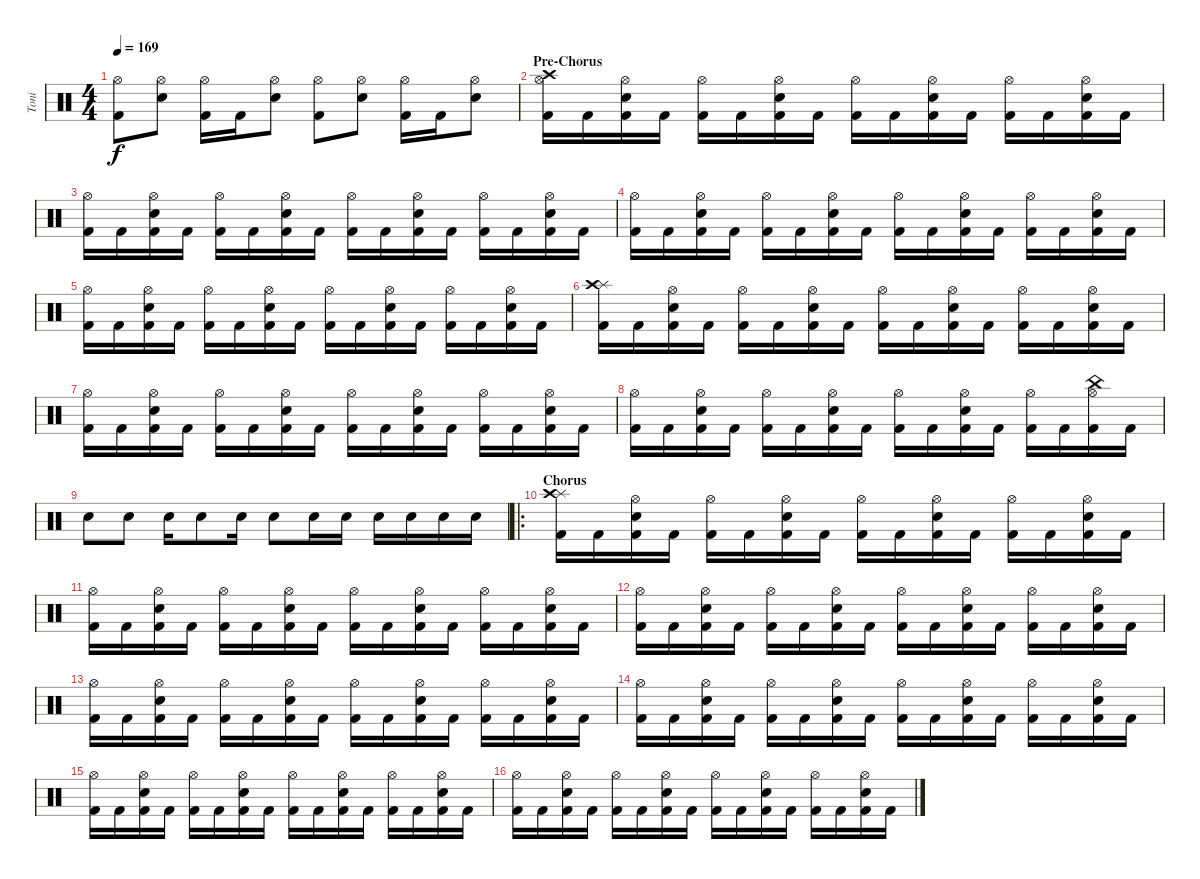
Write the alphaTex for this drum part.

\track ("Toni" "Toni") {instrument percussion}
\staff {score}
\articulation defaults
\ts (4 4)
\tempo 169
\clef neutral
\ks c
("Hi-Hat (open)" "Kick (hit) 2").8{dy f} ("Hi-Hat (open)" "Electric Snare (hit)").8 ("Hi-Hat (open)" "Kick (hit) 2").16 "Kick (hit) 2".16 ("Hi-Hat (open)" "Electric Snare (hit)").8 ("Hi-Hat (open)" "Kick (hit) 2").8 ("Hi-Hat (open)" "Electric Snare (hit)").8 ("Hi-Hat (open)" "Kick (hit) 2").16 "Kick (hit) 2".16 ("Hi-Hat (open)" "Electric Snare (hit)").8 |
\section ("" "Pre-Chorus")
("Crash high (hit)" "Hi-Hat (open)" "Kick (hit) 2").16 "Kick (hit) 2".16 ("Hi-Hat (open)" "Electric Snare (hit)" "Kick (hit) 2").16 "Kick (hit) 2".16 ("Hi-Hat (open)" "Kick (hit) 2").16 "Kick (hit) 2".16 ("Hi-Hat (open)" "Electric Snare (hit)" "Kick (hit) 2").16 "Kick (hit) 2".16 ("Hi-Hat (open)" "Kick (hit) 2").16 "Kick (hit) 2".16 ("Hi-Hat (open)" "Electric Snare (hit)" "Kick (hit) 2").16 "Kick (hit) 2".16 ("Hi-Hat (open)" "Kick (hit) 2").16 "Kick (hit) 2".16 ("Hi-Hat (open)" "Electric Snare (hit)" "Kick (hit) 2").16 "Kick (hit) 2".16 |
("Hi-Hat (open)" "Kick (hit) 2").16 "Kick (hit) 2".16 ("Hi-Hat (open)" "Electric Snare (hit)" "Kick (hit) 2").16 "Kick (hit) 2".16 ("Hi-Hat (open)" "Kick (hit) 2").16 "Kick (hit) 2".16 ("Hi-Hat (open)" "Electric Snare (hit)" "Kick (hit) 2").16 "Kick (hit) 2".16 ("Hi-Hat (open)" "Kick (hit) 2").16 "Kick (hit) 2".16 ("Hi-Hat (open)" "Electric Snare (hit)" "Kick (hit) 2").16 "Kick (hit) 2".16 ("Hi-Hat (open)" "Kick (hit) 2").16 "Kick (hit) 2".16 ("Hi-Hat (open)" "Electric Snare (hit)" "Kick (hit) 2").16 "Kick (hit) 2".16 |
("Hi-Hat (open)" "Kick (hit) 2").16 "Kick (hit) 2".16 ("Hi-Hat (open)" "Electric Snare (hit)" "Kick (hit) 2").16 "Kick (hit) 2".16 ("Hi-Hat (open)" "Kick (hit) 2").16 "Kick (hit) 2".16 ("Hi-Hat (open)" "Electric Snare (hit)" "Kick (hit) 2").16 "Kick (hit) 2".16 ("Hi-Hat (open)" "Kick (hit) 2").16 "Kick (hit) 2".16 ("Hi-Hat (open)" "Electric Snare (hit)" "Kick (hit) 2").16 "Kick (hit) 2".16 ("Hi-Hat (open)" "Kick (hit) 2").16 "Kick (hit) 2".16 ("Hi-Hat (open)" "Electric Snare (hit)" "Kick (hit) 2").16 "Kick (hit) 2".16 |
("Hi-Hat (open)" "Kick (hit) 2").16 "Kick (hit) 2".16 ("Hi-Hat (open)" "Electric Snare (hit)" "Kick (hit) 2").16 "Kick (hit) 2".16 ("Hi-Hat (open)" "Kick (hit) 2").16 "Kick (hit) 2".16 ("Hi-Hat (open)" "Electric Snare (hit)" "Kick (hit) 2").16 "Kick (hit) 2".16 ("Hi-Hat (open)" "Kick (hit) 2").16 "Kick (hit) 2".16 ("Hi-Hat (open)" "Electric Snare (hit)" "Kick (hit) 2").16 "Kick (hit) 2".16 ("Hi-Hat (open)" "Kick (hit) 2").16 "Kick (hit) 2".16 ("Hi-Hat (open)" "Electric Snare (hit)" "Kick (hit) 2").16 "Kick (hit) 2".16 |
("Splash (hit)" "Crash high (hit)" "Kick (hit) 2").16 "Kick (hit) 2".16 ("Hi-Hat (open)" "Electric Snare (hit)" "Kick (hit) 2").16 "Kick (hit) 2".16 ("Hi-Hat (open)" "Kick (hit) 2").16 "Kick (hit) 2".16 ("Hi-Hat (open)" "Electric Snare (hit)" "Kick (hit) 2").16 "Kick (hit) 2".16 ("Hi-Hat (open)" "Kick (hit) 2").16 "Kick (hit) 2".16 ("Hi-Hat (open)" "Electric Snare (hit)" "Kick (hit) 2").16 "Kick (hit) 2".16 ("Hi-Hat (open)" "Kick (hit) 2").16 "Kick (hit) 2".16 ("Hi-Hat (open)" "Electric Snare (hit)" "Kick (hit) 2").16 "Kick (hit) 2".16 |
("Hi-Hat (open)" "Kick (hit) 2").16 "Kick (hit) 2".16 ("Hi-Hat (open)" "Electric Snare (hit)" "Kick (hit) 2").16 "Kick (hit) 2".16 ("Hi-Hat (open)" "Kick (hit) 2").16 "Kick (hit) 2".16 ("Hi-Hat (open)" "Electric Snare (hit)" "Kick (hit) 2").16 "Kick (hit) 2".16 ("Hi-Hat (open)" "Kick (hit) 2").16 "Kick (hit) 2".16 ("Hi-Hat (open)" "Electric Snare (hit)" "Kick (hit) 2").16 "Kick (hit) 2".16 ("Hi-Hat (open)" "Kick (hit) 2").16 "Kick (hit) 2".16 ("Hi-Hat (open)" "Electric Snare (hit)" "Kick (hit) 2").16 "Kick (hit) 2".16 |
("Hi-Hat (open)" "Kick (hit) 2").16 "Kick (hit) 2".16 ("Hi-Hat (open)" "Electric Snare (hit)" "Kick (hit) 2").16 "Kick (hit) 2".16 ("Hi-Hat (open)" "Kick (hit) 2").16 "Kick (hit) 2".16 ("Hi-Hat (open)" "Electric Snare (hit)" "Kick (hit) 2").16 "Kick (hit) 2".16 ("Hi-Hat (open)" "Kick (hit) 2").16 "Kick (hit) 2".16 ("Hi-Hat (open)" "Electric Snare (hit)" "Kick (hit) 2").16 "Kick (hit) 2".16 ("Hi-Hat (open)" "Kick (hit) 2").16 "Kick (hit) 2".16 ("Hi-Hat (open)" "China (hit)" "Kick (hit) 2").16 "Kick (hit) 2".16 |
"Electric Snare (hit)".8 "Electric Snare (hit)".8 "Electric Snare (hit)".16 "Electric Snare (hit)".8 "Electric Snare (hit)".16 "Electric Snare (hit)".8 "Electric Snare (hit)".16 "Electric Snare (hit)".16 "Electric Snare (hit)".16 "Electric Snare (hit)".16 "Electric Snare (hit)".16 "Electric Snare (hit)".16 |
\ro
\section ("" "Chorus")
("Splash (hit)" "Crash high (hit)" "Kick (hit) 2").16 "Kick (hit) 2".16 ("Hi-Hat (open)" "Electric Snare (hit)" "Kick (hit) 2").16 "Kick (hit) 2".16 ("Hi-Hat (open)" "Kick (hit) 2").16 "Kick (hit) 2".16 ("Hi-Hat (open)" "Electric Snare (hit)" "Kick (hit) 2").16 "Kick (hit) 2".16 ("Hi-Hat (open)" "Kick (hit) 2").16 "Kick (hit) 2".16 ("Hi-Hat (open)" "Electric Snare (hit)" "Kick (hit) 2").16 "Kick (hit) 2".16 ("Hi-Hat (open)" "Kick (hit) 2").16 "Kick (hit) 2".16 ("Hi-Hat (open)" "Electric Snare (hit)" "Kick (hit) 2").16 "Kick (hit) 2".16 |
("Hi-Hat (open)" "Kick (hit) 2").16 "Kick (hit) 2".16 ("Hi-Hat (open)" "Electric Snare (hit)" "Kick (hit) 2").16 "Kick (hit) 2".16 ("Hi-Hat (open)" "Kick (hit) 2").16 "Kick (hit) 2".16 ("Hi-Hat (open)" "Electric Snare (hit)" "Kick (hit) 2").16 "Kick (hit) 2".16 ("Hi-Hat (open)" "Kick (hit) 2").16 "Kick (hit) 2".16 ("Hi-Hat (open)" "Electric Snare (hit)" "Kick (hit) 2").16 "Kick (hit) 2".16 ("Hi-Hat (open)" "Kick (hit) 2").16 "Kick (hit) 2".16 ("Hi-Hat (open)" "Electric Snare (hit)" "Kick (hit) 2").16 "Kick (hit) 2".16 |
("Hi-Hat (open)" "Kick (hit) 2").16 "Kick (hit) 2".16 ("Hi-Hat (open)" "Electric Snare (hit)" "Kick (hit) 2").16 "Kick (hit) 2".16 ("Hi-Hat (open)" "Kick (hit) 2").16 "Kick (hit) 2".16 ("Hi-Hat (open)" "Electric Snare (hit)" "Kick (hit) 2").16 "Kick (hit) 2".16 ("Hi-Hat (open)" "Kick (hit) 2").16 "Kick (hit) 2".16 ("Hi-Hat (open)" "Electric Snare (hit)" "Kick (hit) 2").16 "Kick (hit) 2".16 ("Hi-Hat (open)" "Kick (hit) 2").16 "Kick (hit) 2".16 ("Hi-Hat (open)" "Electric Snare (hit)" "Kick (hit) 2").16 "Kick (hit) 2".16 |
("Hi-Hat (open)" "Kick (hit) 2").16 "Kick (hit) 2".16 ("Hi-Hat (open)" "Electric Snare (hit)" "Kick (hit) 2").16 "Kick (hit) 2".16 ("Hi-Hat (open)" "Kick (hit) 2").16 "Kick (hit) 2".16 ("Hi-Hat (open)" "Electric Snare (hit)" "Kick (hit) 2").16 "Kick (hit) 2".16 ("Hi-Hat (open)" "Kick (hit) 2").16 "Kick (hit) 2".16 ("Hi-Hat (open)" "Electric Snare (hit)" "Kick (hit) 2").16 "Kick (hit) 2".16 ("Hi-Hat (open)" "Kick (hit) 2").16 "Kick (hit) 2".16 ("Hi-Hat (open)" "Electric Snare (hit)" "Kick (hit) 2").16 "Kick (hit) 2".16 |
("Hi-Hat (open)" "Kick (hit) 2").16 "Kick (hit) 2".16 ("Hi-Hat (open)" "Electric Snare (hit)" "Kick (hit) 2").16 "Kick (hit) 2".16 ("Hi-Hat (open)" "Kick (hit) 2").16 "Kick (hit) 2".16 ("Hi-Hat (open)" "Electric Snare (hit)" "Kick (hit) 2").16 "Kick (hit) 2".16 ("Hi-Hat (open)" "Kick (hit) 2").16 "Kick (hit) 2".16 ("Hi-Hat (open)" "Electric Snare (hit)" "Kick (hit) 2").16 "Kick (hit) 2".16 ("Hi-Hat (open)" "Kick (hit) 2").16 "Kick (hit) 2".16 ("Hi-Hat (open)" "Electric Snare (hit)" "Kick (hit) 2").16 "Kick (hit) 2".16 |
("Hi-Hat (open)" "Kick (hit) 2").16 "Kick (hit) 2".16 ("Hi-Hat (open)" "Electric Snare (hit)" "Kick (hit) 2").16 "Kick (hit) 2".16 ("Hi-Hat (open)" "Kick (hit) 2").16 "Kick (hit) 2".16 ("Hi-Hat (open)" "Electric Snare (hit)" "Kick (hit) 2").16 "Kick (hit) 2".16 ("Hi-Hat (open)" "Kick (hit) 2").16 "Kick (hit) 2".16 ("Hi-Hat (open)" "Electric Snare (hit)" "Kick (hit) 2").16 "Kick (hit) 2".16 ("Hi-Hat (open)" "Kick (hit) 2").16 "Kick (hit) 2".16 ("Hi-Hat (open)" "Electric Snare (hit)" "Kick (hit) 2").16 "Kick (hit) 2".16 |
("Hi-Hat (open)" "Kick (hit) 2").16 "Kick (hit) 2".16 ("Hi-Hat (open)" "Electric Snare (hit)" "Kick (hit) 2").16 "Kick (hit) 2".16 ("Hi-Hat (open)" "Kick (hit) 2").16 "Kick (hit) 2".16 ("Hi-Hat (open)" "Electric Snare (hit)" "Kick (hit) 2").16 "Kick (hit) 2".16 ("Hi-Hat (open)" "Kick (hit) 2").16 "Kick (hit) 2".16 ("Hi-Hat (open)" "Electric Snare (hit)" "Kick (hit) 2").16 "Kick (hit) 2".16 ("Hi-Hat (open)" "Kick (hit) 2").16 "Kick (hit) 2".16 ("Hi-Hat (open)" "Electric Snare (hit)" "Kick (hit) 2").16 "Kick (hit) 2".16
